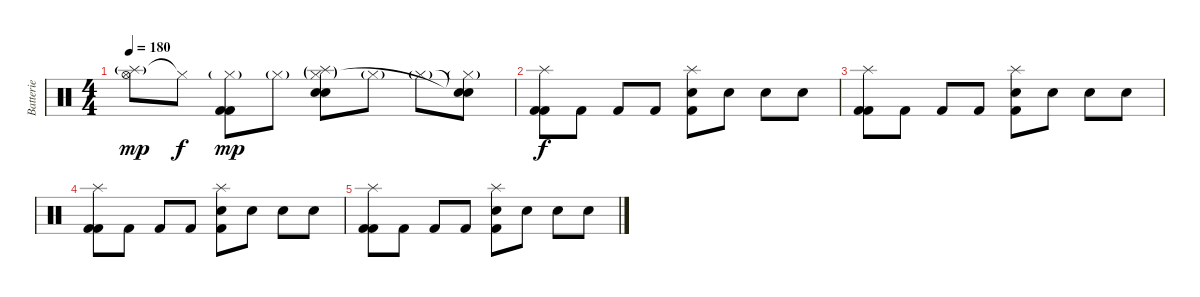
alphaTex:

\track ("Batterie" "Batterie") {instrument percussion}
\staff {score}
\articulation defaults
\ts (4 4)
\tempo 180
\clef neutral
\ks c
("Splash (hit)"{g} "Hi-Hat (open)").8{dy mp} "Hi-Hat (closed)"{t}.8{dy f} ("Hi-Hat (closed)"{g} "Kick (hit) 2" "Kick (hit) 2").8{dy mp} "Hi-Hat (closed)"{g}.8 ("Splash (hit)"{g} "Hi-Hat (closed)"{g} "Electric Snare (hit)" "Snare (hit) 2").8 "Hi-Hat (closed)"{g}.8 "Hi-Hat (closed)"{g}.8 ("Snare (hit)"{t} "Snare (hit)"{t} "Hi-Hat (closed)"{g}).8 |
("Splash (hit)" "Kick (hit) 2" "Kick (hit) 2").8{dy f} "Kick (hit) 2".8 "Kick (hit) 2".8 "Kick (hit) 2".8 ("Splash (hit)" "Electric Snare (hit)" "Kick (hit) 2").8 "Snare (hit)"{x}.8 "Snare (hit)"{x}.8 "Snare (hit)"{x}.8 |
("Splash (hit)" "Kick (hit) 2" "Kick (hit) 2").8 "Kick (hit) 2".8 "Kick (hit) 2".8 "Kick (hit) 2".8 ("Splash (hit)" "Electric Snare (hit)" "Kick (hit) 2").8 "Snare (hit)"{x}.8 "Snare (hit)"{x}.8 "Snare (hit)"{x}.8 |
("Splash (hit)" "Kick (hit) 2" "Kick (hit) 2").8 "Kick (hit) 2".8 "Kick (hit) 2".8 "Kick (hit) 2".8 ("Splash (hit)" "Electric Snare (hit)" "Kick (hit) 2").8 "Snare (hit)"{x}.8 "Snare (hit)"{x}.8 "Snare (hit)"{x}.8 |
("Splash (hit)" "Kick (hit) 2" "Kick (hit) 2").8 "Kick (hit) 2".8 "Kick (hit) 2".8 "Kick (hit) 2".8 ("Splash (hit)" "Electric Snare (hit)" "Kick (hit) 2").8 "Snare (hit)"{x}.8 "Snare (hit)"{x}.8 "Snare (hit)"{x}.8
